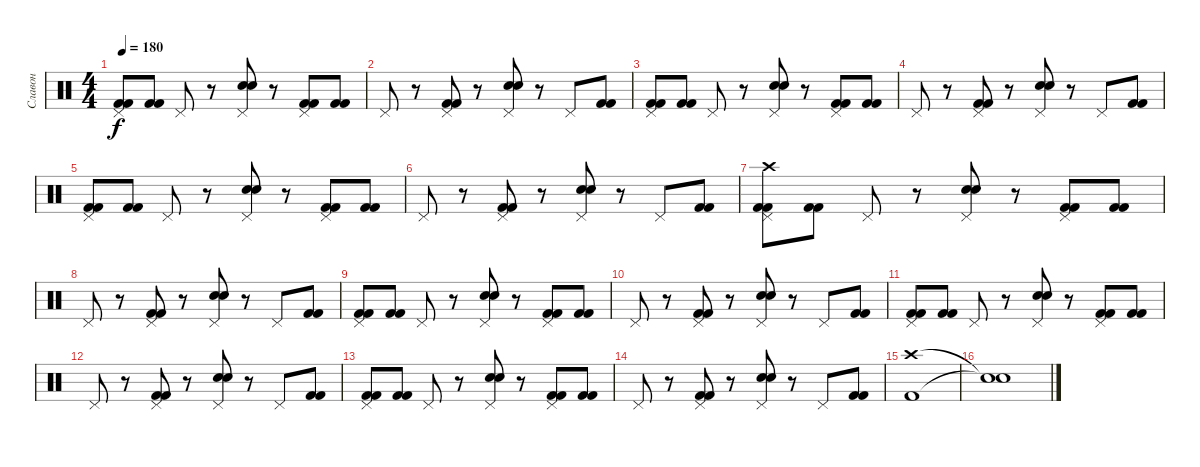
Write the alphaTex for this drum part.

\track ("Славон" "Славон") {instrument percussion}
\staff {score}
\articulation defaults
\ts (4 4)
\tempo 180
\clef neutral
\ks c
("Pedal Hi-Hat (hit)" "Kick (hit) 2" "Kick (hit) 2").8{dy f} ("Kick (hit) 2" "Kick (hit) 2").8 "Pedal Hi-Hat (hit)".8 r.8 ("Pedal Hi-Hat (hit)" "Electric Snare (hit)" "Electric Snare (hit)").8 r.8 ("Pedal Hi-Hat (hit)" "Kick (hit) 2" "Kick (hit) 2").8 ("Kick (hit) 2" "Kick (hit) 2").8 |
"Pedal Hi-Hat (hit)".8 r.8 ("Pedal Hi-Hat (hit)" "Kick (hit) 2" "Kick (hit) 2").8 r.8 ("Pedal Hi-Hat (hit)" "Electric Snare (hit)" "Electric Snare (hit)").8 r.8 "Pedal Hi-Hat (hit)".8 ("Kick (hit) 2" "Kick (hit) 2").8 |
("Pedal Hi-Hat (hit)" "Kick (hit) 2" "Kick (hit) 2").8 ("Kick (hit) 2" "Kick (hit) 2").8 "Pedal Hi-Hat (hit)".8 r.8 ("Pedal Hi-Hat (hit)" "Electric Snare (hit)" "Electric Snare (hit)").8 r.8 ("Pedal Hi-Hat (hit)" "Kick (hit) 2" "Kick (hit) 2").8 ("Kick (hit) 2" "Kick (hit) 2").8 |
"Pedal Hi-Hat (hit)".8 r.8 ("Pedal Hi-Hat (hit)" "Kick (hit) 2" "Kick (hit) 2").8 r.8 ("Pedal Hi-Hat (hit)" "Electric Snare (hit)" "Electric Snare (hit)").8 r.8 "Pedal Hi-Hat (hit)".8 ("Kick (hit) 2" "Kick (hit) 2").8 |
("Pedal Hi-Hat (hit)" "Kick (hit) 2" "Kick (hit) 2").8 ("Kick (hit) 2" "Kick (hit) 2").8 "Pedal Hi-Hat (hit)".8 r.8 ("Pedal Hi-Hat (hit)" "Electric Snare (hit)" "Electric Snare (hit)").8 r.8 ("Pedal Hi-Hat (hit)" "Kick (hit) 2" "Kick (hit) 2").8 ("Kick (hit) 2" "Kick (hit) 2").8 |
"Pedal Hi-Hat (hit)".8 r.8 ("Pedal Hi-Hat (hit)" "Kick (hit) 2" "Kick (hit) 2").8 r.8 ("Pedal Hi-Hat (hit)" "Electric Snare (hit)" "Electric Snare (hit)").8 r.8 "Pedal Hi-Hat (hit)".8 ("Kick (hit) 2" "Kick (hit) 2").8 |
("Pedal Hi-Hat (hit)" "Kick (hit) 2" "Kick (hit) 2" "Crash high (hit)").8 ("Kick (hit) 2" "Kick (hit) 2").8 "Pedal Hi-Hat (hit)".8 r.8 ("Pedal Hi-Hat (hit)" "Electric Snare (hit)" "Electric Snare (hit)").8 r.8 ("Pedal Hi-Hat (hit)" "Kick (hit) 2" "Kick (hit) 2").8 ("Kick (hit) 2" "Kick (hit) 2").8 |
"Pedal Hi-Hat (hit)".8 r.8 ("Pedal Hi-Hat (hit)" "Kick (hit) 2" "Kick (hit) 2").8 r.8 ("Pedal Hi-Hat (hit)" "Electric Snare (hit)" "Electric Snare (hit)").8 r.8 "Pedal Hi-Hat (hit)".8 ("Kick (hit) 2" "Kick (hit) 2").8 |
("Pedal Hi-Hat (hit)" "Kick (hit) 2" "Kick (hit) 2").8 ("Kick (hit) 2" "Kick (hit) 2").8 "Pedal Hi-Hat (hit)".8 r.8 ("Pedal Hi-Hat (hit)" "Electric Snare (hit)" "Electric Snare (hit)").8 r.8 ("Pedal Hi-Hat (hit)" "Kick (hit) 2" "Kick (hit) 2").8 ("Kick (hit) 2" "Kick (hit) 2").8 |
"Pedal Hi-Hat (hit)".8 r.8 ("Pedal Hi-Hat (hit)" "Kick (hit) 2" "Kick (hit) 2").8 r.8 ("Pedal Hi-Hat (hit)" "Electric Snare (hit)" "Electric Snare (hit)").8 r.8 "Pedal Hi-Hat (hit)".8 ("Kick (hit) 2" "Kick (hit) 2").8 |
("Pedal Hi-Hat (hit)" "Kick (hit) 2" "Kick (hit) 2").8 ("Kick (hit) 2" "Kick (hit) 2").8 "Pedal Hi-Hat (hit)".8 r.8 ("Pedal Hi-Hat (hit)" "Electric Snare (hit)" "Electric Snare (hit)").8 r.8 ("Pedal Hi-Hat (hit)" "Kick (hit) 2" "Kick (hit) 2").8 ("Kick (hit) 2" "Kick (hit) 2").8 |
"Pedal Hi-Hat (hit)".8 r.8 ("Pedal Hi-Hat (hit)" "Kick (hit) 2" "Kick (hit) 2").8 r.8 ("Pedal Hi-Hat (hit)" "Electric Snare (hit)" "Electric Snare (hit)").8 r.8 "Pedal Hi-Hat (hit)".8 ("Kick (hit) 2" "Kick (hit) 2").8 |
("Pedal Hi-Hat (hit)" "Kick (hit) 2" "Kick (hit) 2").8 ("Kick (hit) 2" "Kick (hit) 2").8 "Pedal Hi-Hat (hit)".8 r.8 ("Pedal Hi-Hat (hit)" "Electric Snare (hit)" "Electric Snare (hit)").8 r.8 ("Pedal Hi-Hat (hit)" "Kick (hit) 2" "Kick (hit) 2").8 ("Kick (hit) 2" "Kick (hit) 2").8 |
"Pedal Hi-Hat (hit)".8 r.8 ("Pedal Hi-Hat (hit)" "Kick (hit) 2" "Kick (hit) 2").8 r.8 ("Pedal Hi-Hat (hit)" "Electric Snare (hit)" "Electric Snare (hit)").8 r.8 "Pedal Hi-Hat (hit)".8 ("Kick (hit) 2" "Kick (hit) 2").8 |
("Crash high (hit)" "Kick (hit) 2").1 |
("Snare (hit)"{t} "Snare (hit)"{t}).1
